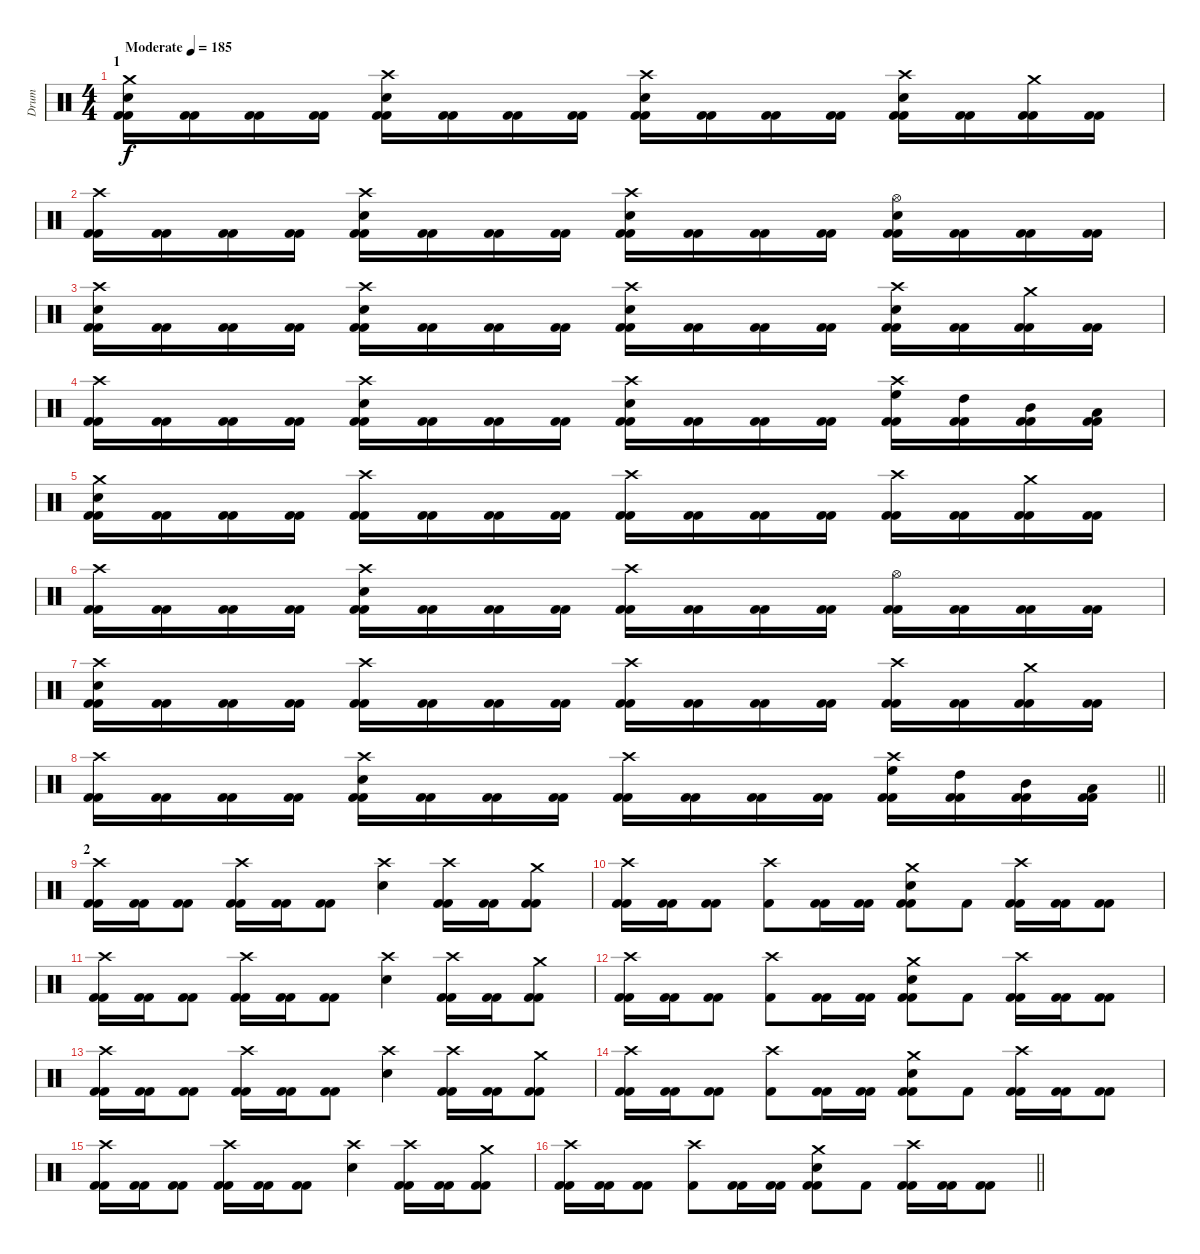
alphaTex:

\track ("Drum" "Drum") {instrument percussion}
\staff {score}
\articulation defaults
\ts (4 4)
\section ("" "1")
\tempo (185 "Moderate")
\clef neutral
\ks c
("Crash medium (hit)" "Electric Snare (hit)" "Kick (hit) 2" "Kick (hit) 2").16{dy f} ("Kick (hit) 2" "Kick (hit) 2").16 ("Kick (hit) 2" "Kick (hit) 2").16 ("Kick (hit) 2" "Kick (hit) 2").16 ("Crash high (hit)" "Electric Snare (hit)" "Kick (hit) 2" "Kick (hit) 2").16 ("Kick (hit) 2" "Kick (hit) 2").16 ("Kick (hit) 2" "Kick (hit) 2").16 ("Kick (hit) 2" "Kick (hit) 2").16 ("Crash high (hit)" "Electric Snare (hit)" "Kick (hit) 2" "Kick (hit) 2").16 ("Kick (hit) 2" "Kick (hit) 2").16 ("Kick (hit) 2" "Kick (hit) 2").16 ("Kick (hit) 2" "Kick (hit) 2").16 ("Crash high (hit)" "Electric Snare (hit)" "Kick (hit) 2" "Kick (hit) 2").16 ("Kick (hit) 2" "Kick (hit) 2").16 ("Crash medium (hit)" "Kick (hit) 2" "Kick (hit) 2").16 ("Kick (hit) 2" "Kick (hit) 2").16 |
("Crash high (hit)" "Kick (hit) 2" "Kick (hit) 2").16 ("Kick (hit) 2" "Kick (hit) 2").16 ("Kick (hit) 2" "Kick (hit) 2").16 ("Kick (hit) 2" "Kick (hit) 2").16 ("Crash high (hit)" "Electric Snare (hit)" "Kick (hit) 2" "Kick (hit) 2").16 ("Kick (hit) 2" "Kick (hit) 2").16 ("Kick (hit) 2" "Kick (hit) 2").16 ("Kick (hit) 2" "Kick (hit) 2").16 ("Crash high (hit)" "Electric Snare (hit)" "Kick (hit) 2" "Kick (hit) 2").16 ("Kick (hit) 2" "Kick (hit) 2").16 ("Kick (hit) 2" "Kick (hit) 2").16 ("Kick (hit) 2" "Kick (hit) 2").16 ("Hi-Hat (open)" "Electric Snare (hit)" "Kick (hit) 2" "Kick (hit) 2").16 ("Kick (hit) 2" "Kick (hit) 2").16 ("Kick (hit) 2" "Kick (hit) 2").16 ("Kick (hit) 2" "Kick (hit) 2").16 |
("Crash high (hit)" "Electric Snare (hit)" "Kick (hit) 2" "Kick (hit) 2").16 ("Kick (hit) 2" "Kick (hit) 2").16 ("Kick (hit) 2" "Kick (hit) 2").16 ("Kick (hit) 2" "Kick (hit) 2").16 ("Crash high (hit)" "Electric Snare (hit)" "Kick (hit) 2" "Kick (hit) 2").16 ("Kick (hit) 2" "Kick (hit) 2").16 ("Kick (hit) 2" "Kick (hit) 2").16 ("Kick (hit) 2" "Kick (hit) 2").16 ("Crash high (hit)" "Electric Snare (hit)" "Kick (hit) 2" "Kick (hit) 2").16 ("Kick (hit) 2" "Kick (hit) 2").16 ("Kick (hit) 2" "Kick (hit) 2").16 ("Kick (hit) 2" "Kick (hit) 2").16 ("Crash high (hit)" "Electric Snare (hit)" "Kick (hit) 2" "Kick (hit) 2").16 ("Kick (hit) 2" "Kick (hit) 2").16 ("Crash medium (hit)" "Kick (hit) 2" "Kick (hit) 2").16 ("Kick (hit) 2" "Kick (hit) 2").16 |
("Crash high (hit)" "Kick (hit) 2" "Kick (hit) 2").16 ("Kick (hit) 2" "Kick (hit) 2").16 ("Kick (hit) 2" "Kick (hit) 2").16 ("Kick (hit) 2" "Kick (hit) 2").16 ("Crash high (hit)" "Electric Snare (hit)" "Kick (hit) 2" "Kick (hit) 2").16 ("Kick (hit) 2" "Kick (hit) 2").16 ("Kick (hit) 2" "Kick (hit) 2").16 ("Kick (hit) 2" "Kick (hit) 2").16 ("Crash high (hit)" "Electric Snare (hit)" "Kick (hit) 2" "Kick (hit) 2").16 ("Kick (hit) 2" "Kick (hit) 2").16 ("Kick (hit) 2" "Kick (hit) 2").16 ("Kick (hit) 2" "Kick (hit) 2").16 ("Crash high (hit)" "High Floor Tom (hit)" "Kick (hit) 2" "Kick (hit) 2").16 ("High Tom (hit)" "Kick (hit) 2" "Kick (hit) 2").16 ("Mid Tom (hit)" "Kick (hit) 2" "Kick (hit) 2").16 ("Low Tom (hit)" "Kick (hit) 2" "Kick (hit) 2").16 |
("Crash medium (hit)" "Electric Snare (hit)" "Kick (hit) 2" "Kick (hit) 2").16 ("Kick (hit) 2" "Kick (hit) 2").16 ("Kick (hit) 2" "Kick (hit) 2").16 ("Kick (hit) 2" "Kick (hit) 2").16 ("Crash high (hit)" "Kick (hit) 2" "Kick (hit) 2").16 ("Kick (hit) 2" "Kick (hit) 2").16 ("Kick (hit) 2" "Kick (hit) 2").16 ("Kick (hit) 2" "Kick (hit) 2").16 ("Crash high (hit)" "Kick (hit) 2" "Kick (hit) 2").16 ("Kick (hit) 2" "Kick (hit) 2").16 ("Kick (hit) 2" "Kick (hit) 2").16 ("Kick (hit) 2" "Kick (hit) 2").16 ("Crash high (hit)" "Kick (hit) 2" "Kick (hit) 2").16 ("Kick (hit) 2" "Kick (hit) 2").16 ("Crash medium (hit)" "Kick (hit) 2" "Kick (hit) 2").16 ("Kick (hit) 2" "Kick (hit) 2").16 |
("Crash high (hit)" "Kick (hit) 2" "Kick (hit) 2").16 ("Kick (hit) 2" "Kick (hit) 2").16 ("Kick (hit) 2" "Kick (hit) 2").16 ("Kick (hit) 2" "Kick (hit) 2").16 ("Crash high (hit)" "Electric Snare (hit)" "Kick (hit) 2" "Kick (hit) 2").16 ("Kick (hit) 2" "Kick (hit) 2").16 ("Kick (hit) 2" "Kick (hit) 2").16 ("Kick (hit) 2" "Kick (hit) 2").16 ("Crash high (hit)" "Kick (hit) 2" "Kick (hit) 2").16 ("Kick (hit) 2" "Kick (hit) 2").16 ("Kick (hit) 2" "Kick (hit) 2").16 ("Kick (hit) 2" "Kick (hit) 2").16 ("Hi-Hat (open)" "Kick (hit) 2" "Kick (hit) 2").16 ("Kick (hit) 2" "Kick (hit) 2").16 ("Kick (hit) 2" "Kick (hit) 2").16 ("Kick (hit) 2" "Kick (hit) 2").16 |
("Crash high (hit)" "Electric Snare (hit)" "Kick (hit) 2" "Kick (hit) 2").16 ("Kick (hit) 2" "Kick (hit) 2").16 ("Kick (hit) 2" "Kick (hit) 2").16 ("Kick (hit) 2" "Kick (hit) 2").16 ("Crash high (hit)" "Kick (hit) 2" "Kick (hit) 2").16 ("Kick (hit) 2" "Kick (hit) 2").16 ("Kick (hit) 2" "Kick (hit) 2").16 ("Kick (hit) 2" "Kick (hit) 2").16 ("Crash high (hit)" "Kick (hit) 2" "Kick (hit) 2").16 ("Kick (hit) 2" "Kick (hit) 2").16 ("Kick (hit) 2" "Kick (hit) 2").16 ("Kick (hit) 2" "Kick (hit) 2").16 ("Crash high (hit)" "Kick (hit) 2" "Kick (hit) 2").16 ("Kick (hit) 2" "Kick (hit) 2").16 ("Crash medium (hit)" "Kick (hit) 2" "Kick (hit) 2").16 ("Kick (hit) 2" "Kick (hit) 2").16 |
\barLineRight lightlight
("Crash high (hit)" "Kick (hit) 2" "Kick (hit) 2").16 ("Kick (hit) 2" "Kick (hit) 2").16 ("Kick (hit) 2" "Kick (hit) 2").16 ("Kick (hit) 2" "Kick (hit) 2").16 ("Crash high (hit)" "Electric Snare (hit)" "Kick (hit) 2" "Kick (hit) 2").16 ("Kick (hit) 2" "Kick (hit) 2").16 ("Kick (hit) 2" "Kick (hit) 2").16 ("Kick (hit) 2" "Kick (hit) 2").16 ("Crash high (hit)" "Kick (hit) 2" "Kick (hit) 2").16 ("Kick (hit) 2" "Kick (hit) 2").16 ("Kick (hit) 2" "Kick (hit) 2").16 ("Kick (hit) 2" "Kick (hit) 2").16 ("Crash high (hit)" "High Floor Tom (hit)" "Kick (hit) 2" "Kick (hit) 2").16 ("High Tom (hit)" "Kick (hit) 2" "Kick (hit) 2").16 ("Mid Tom (hit)" "Kick (hit) 2" "Kick (hit) 2").16 ("Low Tom (hit)" "Kick (hit) 2" "Kick (hit) 2").16 |
\section ("" "2")
("Crash high (hit)" "Kick (hit) 2" "Kick (hit) 2").16 ("Kick (hit) 2" "Kick (hit) 2").16 ("Kick (hit) 2" "Kick (hit) 2").8 ("Crash high (hit)" "Kick (hit) 2" "Kick (hit) 2").16 ("Kick (hit) 2" "Kick (hit) 2").16 ("Kick (hit) 2" "Kick (hit) 2").8 ("Crash high (hit)" "Electric Snare (hit)").4 ("Crash high (hit)" "Kick (hit) 2" "Kick (hit) 2").16 ("Kick (hit) 2" "Kick (hit) 2").16 ("Crash medium (hit)" "Kick (hit) 2" "Kick (hit) 2").8 |
("Crash high (hit)" "Kick (hit) 2" "Kick (hit) 2").16 ("Kick (hit) 2" "Kick (hit) 2").16 ("Kick (hit) 2" "Kick (hit) 2").8 ("Crash high (hit)" "Kick (hit) 2").8 ("Kick (hit) 2" "Kick (hit) 2").16 ("Kick (hit) 2" "Kick (hit) 2").16 ("Crash medium (hit)" "Electric Snare (hit)" "Kick (hit) 2" "Kick (hit) 2").8 "Kick (hit) 2".8 ("Crash high (hit)" "Kick (hit) 2" "Kick (hit) 2").16 ("Kick (hit) 2" "Kick (hit) 2").16 ("Kick (hit) 2" "Kick (hit) 2").8 |
("Crash high (hit)" "Kick (hit) 2" "Kick (hit) 2").16 ("Kick (hit) 2" "Kick (hit) 2").16 ("Kick (hit) 2" "Kick (hit) 2").8 ("Crash high (hit)" "Kick (hit) 2" "Kick (hit) 2").16 ("Kick (hit) 2" "Kick (hit) 2").16 ("Kick (hit) 2" "Kick (hit) 2").8 ("Crash high (hit)" "Electric Snare (hit)").4 ("Crash high (hit)" "Kick (hit) 2" "Kick (hit) 2").16 ("Kick (hit) 2" "Kick (hit) 2").16 ("Crash medium (hit)" "Kick (hit) 2" "Kick (hit) 2").8 |
("Crash high (hit)" "Kick (hit) 2" "Kick (hit) 2").16 ("Kick (hit) 2" "Kick (hit) 2").16 ("Kick (hit) 2" "Kick (hit) 2").8 ("Crash high (hit)" "Kick (hit) 2").8 ("Kick (hit) 2" "Kick (hit) 2").16 ("Kick (hit) 2" "Kick (hit) 2").16 ("Crash medium (hit)" "Electric Snare (hit)" "Kick (hit) 2" "Kick (hit) 2").8 "Kick (hit) 2".8 ("Crash high (hit)" "Kick (hit) 2" "Kick (hit) 2").16 ("Kick (hit) 2" "Kick (hit) 2").16 ("Kick (hit) 2" "Kick (hit) 2").8 |
("Crash high (hit)" "Kick (hit) 2" "Kick (hit) 2").16 ("Kick (hit) 2" "Kick (hit) 2").16 ("Kick (hit) 2" "Kick (hit) 2").8 ("Crash high (hit)" "Kick (hit) 2" "Kick (hit) 2").16 ("Kick (hit) 2" "Kick (hit) 2").16 ("Kick (hit) 2" "Kick (hit) 2").8 ("Crash high (hit)" "Electric Snare (hit)").4 ("Crash high (hit)" "Kick (hit) 2" "Kick (hit) 2").16 ("Kick (hit) 2" "Kick (hit) 2").16 ("Crash medium (hit)" "Kick (hit) 2" "Kick (hit) 2").8 |
("Crash high (hit)" "Kick (hit) 2" "Kick (hit) 2").16 ("Kick (hit) 2" "Kick (hit) 2").16 ("Kick (hit) 2" "Kick (hit) 2").8 ("Crash high (hit)" "Kick (hit) 2").8 ("Kick (hit) 2" "Kick (hit) 2").16 ("Kick (hit) 2" "Kick (hit) 2").16 ("Crash medium (hit)" "Electric Snare (hit)" "Kick (hit) 2" "Kick (hit) 2").8 "Kick (hit) 2".8 ("Crash high (hit)" "Kick (hit) 2" "Kick (hit) 2").16 ("Kick (hit) 2" "Kick (hit) 2").16 ("Kick (hit) 2" "Kick (hit) 2").8 |
("Crash high (hit)" "Kick (hit) 2" "Kick (hit) 2").16 ("Kick (hit) 2" "Kick (hit) 2").16 ("Kick (hit) 2" "Kick (hit) 2").8 ("Crash high (hit)" "Kick (hit) 2" "Kick (hit) 2").16 ("Kick (hit) 2" "Kick (hit) 2").16 ("Kick (hit) 2" "Kick (hit) 2").8 ("Crash high (hit)" "Electric Snare (hit)").4 ("Crash high (hit)" "Kick (hit) 2" "Kick (hit) 2").16 ("Kick (hit) 2" "Kick (hit) 2").16 ("Crash medium (hit)" "Kick (hit) 2" "Kick (hit) 2").8 |
\barLineRight lightlight
("Crash high (hit)" "Kick (hit) 2" "Kick (hit) 2").16 ("Kick (hit) 2" "Kick (hit) 2").16 ("Kick (hit) 2" "Kick (hit) 2").8 ("Crash high (hit)" "Kick (hit) 2").8 ("Kick (hit) 2" "Kick (hit) 2").16 ("Kick (hit) 2" "Kick (hit) 2").16 ("Crash medium (hit)" "Electric Snare (hit)" "Kick (hit) 2" "Kick (hit) 2").8 "Kick (hit) 2".8 ("Crash high (hit)" "Kick (hit) 2" "Kick (hit) 2").16 ("Kick (hit) 2" "Kick (hit) 2").16 ("Kick (hit) 2" "Kick (hit) 2").8
